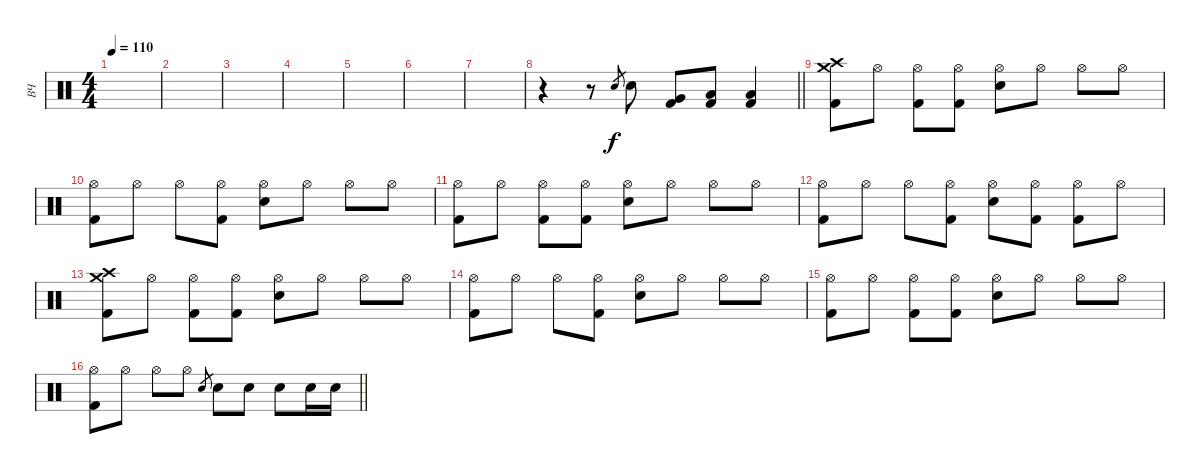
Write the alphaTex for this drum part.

\track ("ВЧ" "ВЧ") {instrument percussion}
\staff {score}
\articulation defaults
\ts (4 4)
\tempo 110
\clef neutral
\ks c
|
|
|
|
|
|
|
\barLineRight lightlight
r.4 r.8 "Snare (hit) 2".8{gr dy f} "Snare (hit) 2".8 ("Very Low Tom (hit)" "Kick (hit) 2").8 ("Low Floor Tom (hit)" "Kick (hit) 2").8 ("Low Tom (hit)" "Kick (hit) 2").4 |
("Crash medium (hit)" "Crash high (hit)" "Kick (hit) 2").8 "Hi-Hat (open)".8 ("Hi-Hat (open)" "Kick (hit) 2").8 ("Hi-Hat (open)" "Kick (hit) 2").8 ("Hi-Hat (open)" "Snare (hit) 2").8 "Hi-Hat (open)".8 "Hi-Hat (open)".8 "Hi-Hat (open)".8 |
("Hi-Hat (open)" "Kick (hit) 2").8 "Hi-Hat (open)".8 "Hi-Hat (open)".8 ("Hi-Hat (open)" "Kick (hit) 2").8 ("Hi-Hat (open)" "Snare (hit) 2").8 "Hi-Hat (open)".8 "Hi-Hat (open)".8 "Hi-Hat (open)".8 |
("Hi-Hat (open)" "Kick (hit) 2").8 "Hi-Hat (open)".8 ("Hi-Hat (open)" "Kick (hit) 2").8 ("Hi-Hat (open)" "Kick (hit) 2").8 ("Hi-Hat (open)" "Snare (hit) 2").8 "Hi-Hat (open)".8 "Hi-Hat (open)".8 "Hi-Hat (open)".8 |
("Hi-Hat (open)" "Kick (hit) 2").8 "Hi-Hat (open)".8 "Hi-Hat (open)".8 ("Hi-Hat (open)" "Kick (hit) 2").8 ("Hi-Hat (open)" "Snare (hit) 2").8 ("Hi-Hat (open)" "Kick (hit) 2").8 ("Hi-Hat (open)" "Kick (hit) 2").8 "Hi-Hat (open)".8 |
("Crash medium (hit)" "Crash high (hit)" "Kick (hit) 2").8 "Hi-Hat (open)".8 ("Hi-Hat (open)" "Kick (hit) 2").8 ("Hi-Hat (open)" "Kick (hit) 2").8 ("Hi-Hat (open)" "Snare (hit) 2").8 "Hi-Hat (open)".8 "Hi-Hat (open)".8 "Hi-Hat (open)".8 |
("Hi-Hat (open)" "Kick (hit) 2").8 "Hi-Hat (open)".8 "Hi-Hat (open)".8 ("Hi-Hat (open)" "Kick (hit) 2").8 ("Hi-Hat (open)" "Snare (hit) 2").8 "Hi-Hat (open)".8 "Hi-Hat (open)".8 "Hi-Hat (open)".8 |
("Hi-Hat (open)" "Kick (hit) 2").8 "Hi-Hat (open)".8 ("Hi-Hat (open)" "Kick (hit) 2").8 ("Hi-Hat (open)" "Kick (hit) 2").8 ("Hi-Hat (open)" "Snare (hit) 2").8 "Hi-Hat (open)".8 "Hi-Hat (open)".8 "Hi-Hat (open)".8 |
\barLineRight lightlight
("Hi-Hat (open)" "Kick (hit) 2").8 "Hi-Hat (open)".8 "Hi-Hat (open)".8 "Hi-Hat (open)".8 "Snare (hit) 2".8{gr} "Snare (hit) 2".8 "Snare (hit) 2".8 "Snare (hit) 2".8 "Snare (hit) 2".16 "Snare (hit) 2".16
